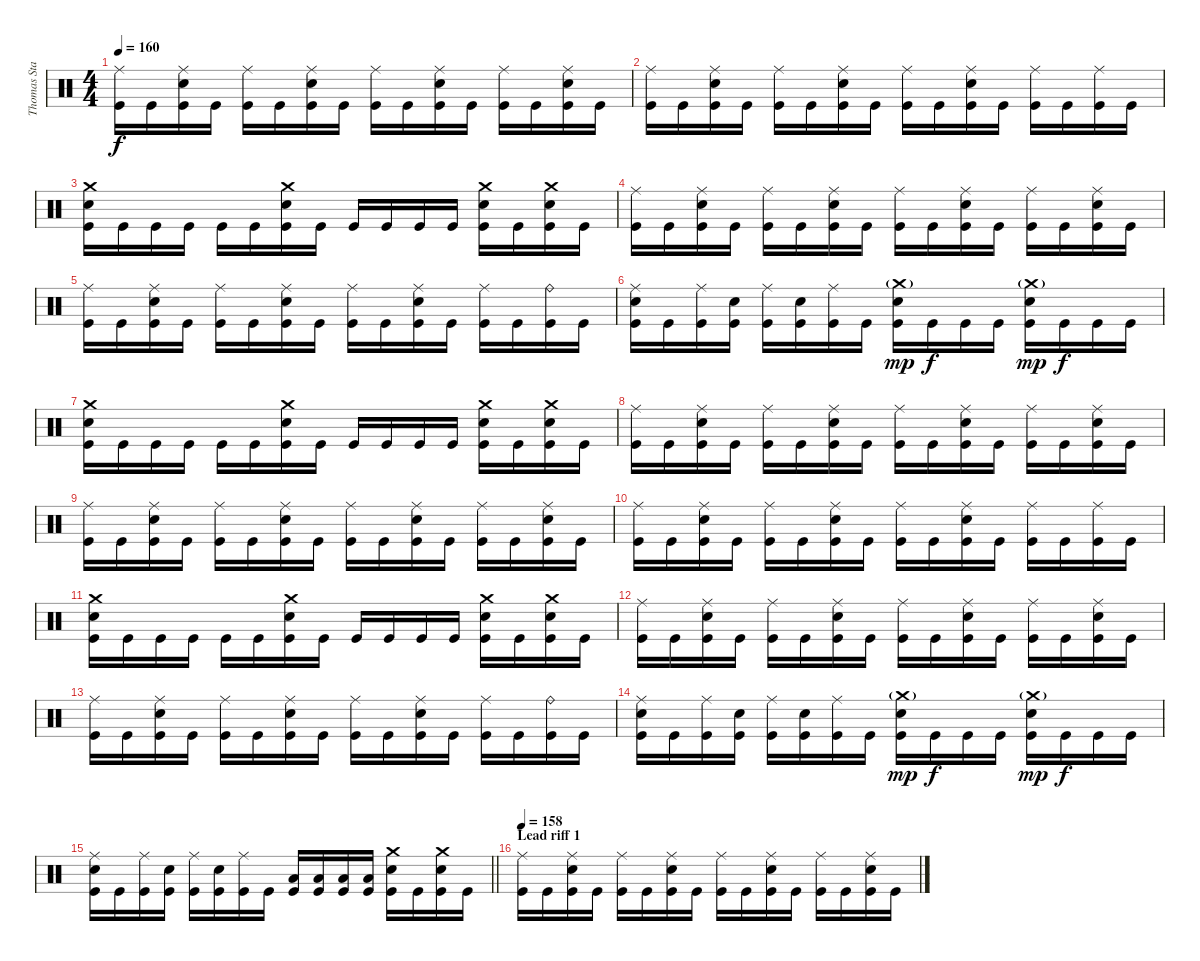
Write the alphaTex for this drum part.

\track ("Thomas Stauch" "Thomas Sta") {instrument percussion}
\staff {score}
\articulation defaults
\ts (4 4)
\tempo 160
\clef neutral
\ks c
("Ride (middle)" "Kick (hit)").16{dy f} "Kick (hit)".16 ("Ride (middle)" "Electric Snare (hit)" "Kick (hit)").16 "Kick (hit)".16 ("Ride (middle)" "Kick (hit)").16 "Kick (hit)".16 ("Ride (middle)" "Electric Snare (hit)" "Kick (hit)").16 "Kick (hit)".16 ("Ride (middle)" "Kick (hit)").16 "Kick (hit)".16 ("Ride (middle)" "Electric Snare (hit)" "Kick (hit)").16 "Kick (hit)".16 ("Ride (middle)" "Kick (hit)").16 "Kick (hit)".16 ("Ride (middle)" "Electric Snare (hit)" "Kick (hit)").16 "Kick (hit)".16 |
("Ride (middle)" "Kick (hit)").16 "Kick (hit)".16 ("Ride (middle)" "Electric Snare (hit)" "Kick (hit)").16 "Kick (hit)".16 ("Ride (middle)" "Kick (hit)").16 "Kick (hit)".16 ("Ride (middle)" "Electric Snare (hit)" "Kick (hit)").16 "Kick (hit)".16 ("Ride (middle)" "Kick (hit)").16 "Kick (hit)".16 ("Ride (middle)" "Electric Snare (hit)" "Kick (hit)").16 "Kick (hit)".16 ("Ride (middle)" "Kick (hit)").16 "Kick (hit)".16 ("Ride (middle)" "Kick (hit)").16 "Kick (hit)".16 |
("Crash medium (hit)" "Electric Snare (hit)" "Kick (hit)").16 "Kick (hit)".16 "Kick (hit)".16 "Kick (hit)".16 "Kick (hit)".16 "Kick (hit)".16 ("Crash medium (hit)" "Electric Snare (hit)" "Kick (hit)").16 "Kick (hit)".16 "Kick (hit)".16 "Kick (hit)".16 "Kick (hit)".16 "Kick (hit)".16 ("Crash medium (hit)" "Electric Snare (hit)" "Kick (hit)").16 "Kick (hit)".16 ("Crash medium (hit)" "Electric Snare (hit)" "Kick (hit)").16 "Kick (hit)".16 |
("Ride (middle)" "Kick (hit)").16 "Kick (hit)".16 ("Ride (middle)" "Electric Snare (hit)" "Kick (hit)").16 "Kick (hit)".16 ("Ride (middle)" "Kick (hit)").16 "Kick (hit)".16 ("Ride (middle)" "Electric Snare (hit)" "Kick (hit)").16 "Kick (hit)".16 ("Ride (middle)" "Kick (hit)").16 "Kick (hit)".16 ("Ride (middle)" "Electric Snare (hit)" "Kick (hit)").16 "Kick (hit)".16 ("Ride (middle)" "Kick (hit)").16 "Kick (hit)".16 ("Ride (middle)" "Electric Snare (hit)" "Kick (hit)").16 "Kick (hit)".16 |
("Ride (middle)" "Kick (hit)").16 "Kick (hit)".16 ("Ride (middle)" "Electric Snare (hit)" "Kick (hit)").16 "Kick (hit)".16 ("Ride (middle)" "Kick (hit)").16 "Kick (hit)".16 ("Ride (middle)" "Electric Snare (hit)" "Kick (hit)").16 "Kick (hit)".16 ("Ride (middle)" "Kick (hit)").16 "Kick (hit)".16 ("Ride (middle)" "Electric Snare (hit)" "Kick (hit)").16 "Kick (hit)".16 ("Ride (middle)" "Kick (hit)").16 "Kick (hit)".16 ("Ride (bell)" "Kick (hit)").16 "Kick (hit)".16 |
("Ride (middle)" "Electric Snare (hit)" "Kick (hit)").16 "Kick (hit)".16 ("Ride (middle)" "Kick (hit)").16 ("Electric Snare (hit)" "Kick (hit)").16 ("Ride (middle)" "Kick (hit)").16 ("Electric Snare (hit)" "Kick (hit)").16 ("Ride (middle)" "Kick (hit)").16 "Kick (hit)".16 ("Crash medium (hit)"{g} "Electric Snare (hit)" "Kick (hit)").16{dy mp} "Kick (hit)".16{dy f} "Kick (hit)".16 "Kick (hit)".16 ("Crash medium (hit)"{g} "Electric Snare (hit)" "Kick (hit)").16{dy mp} "Kick (hit)".16{dy f} "Kick (hit)".16 "Kick (hit)".16 |
("Crash medium (hit)" "Electric Snare (hit)" "Kick (hit)").16 "Kick (hit)".16 "Kick (hit)".16 "Kick (hit)".16 "Kick (hit)".16 "Kick (hit)".16 ("Crash medium (hit)" "Electric Snare (hit)" "Kick (hit)").16 "Kick (hit)".16 "Kick (hit)".16 "Kick (hit)".16 "Kick (hit)".16 "Kick (hit)".16 ("Crash medium (hit)" "Electric Snare (hit)" "Kick (hit)").16 "Kick (hit)".16 ("Crash medium (hit)" "Electric Snare (hit)" "Kick (hit)").16 "Kick (hit)".16 |
("Ride (middle)" "Kick (hit)").16 "Kick (hit)".16 ("Ride (middle)" "Electric Snare (hit)" "Kick (hit)").16 "Kick (hit)".16 ("Ride (middle)" "Kick (hit)").16 "Kick (hit)".16 ("Ride (middle)" "Electric Snare (hit)" "Kick (hit)").16 "Kick (hit)".16 ("Ride (middle)" "Kick (hit)").16 "Kick (hit)".16 ("Ride (middle)" "Electric Snare (hit)" "Kick (hit)").16 "Kick (hit)".16 ("Ride (middle)" "Kick (hit)").16 "Kick (hit)".16 ("Ride (middle)" "Electric Snare (hit)" "Kick (hit)").16 "Kick (hit)".16 |
("Ride (middle)" "Kick (hit)").16 "Kick (hit)".16 ("Ride (middle)" "Electric Snare (hit)" "Kick (hit)").16 "Kick (hit)".16 ("Ride (middle)" "Kick (hit)").16 "Kick (hit)".16 ("Ride (middle)" "Electric Snare (hit)" "Kick (hit)").16 "Kick (hit)".16 ("Ride (middle)" "Kick (hit)").16 "Kick (hit)".16 ("Ride (middle)" "Electric Snare (hit)" "Kick (hit)").16 "Kick (hit)".16 ("Ride (middle)" "Kick (hit)").16 "Kick (hit)".16 ("Ride (middle)" "Electric Snare (hit)" "Kick (hit)").16 "Kick (hit)".16 |
("Ride (middle)" "Kick (hit)").16 "Kick (hit)".16 ("Ride (middle)" "Electric Snare (hit)" "Kick (hit)").16 "Kick (hit)".16 ("Ride (middle)" "Kick (hit)").16 "Kick (hit)".16 ("Ride (middle)" "Electric Snare (hit)" "Kick (hit)").16 "Kick (hit)".16 ("Ride (middle)" "Kick (hit)").16 "Kick (hit)".16 ("Ride (middle)" "Electric Snare (hit)" "Kick (hit)").16 "Kick (hit)".16 ("Ride (middle)" "Kick (hit)").16 "Kick (hit)".16 ("Ride (middle)" "Kick (hit)").16 "Kick (hit)".16 |
("Crash medium (hit)" "Electric Snare (hit)" "Kick (hit)").16 "Kick (hit)".16 "Kick (hit)".16 "Kick (hit)".16 "Kick (hit)".16 "Kick (hit)".16 ("Crash medium (hit)" "Electric Snare (hit)" "Kick (hit)").16 "Kick (hit)".16 "Kick (hit)".16 "Kick (hit)".16 "Kick (hit)".16 "Kick (hit)".16 ("Crash medium (hit)" "Electric Snare (hit)" "Kick (hit)").16 "Kick (hit)".16 ("Crash medium (hit)" "Electric Snare (hit)" "Kick (hit)").16 "Kick (hit)".16 |
("Ride (middle)" "Kick (hit)").16 "Kick (hit)".16 ("Ride (middle)" "Electric Snare (hit)" "Kick (hit)").16 "Kick (hit)".16 ("Ride (middle)" "Kick (hit)").16 "Kick (hit)".16 ("Ride (middle)" "Electric Snare (hit)" "Kick (hit)").16 "Kick (hit)".16 ("Ride (middle)" "Kick (hit)").16 "Kick (hit)".16 ("Ride (middle)" "Electric Snare (hit)" "Kick (hit)").16 "Kick (hit)".16 ("Ride (middle)" "Kick (hit)").16 "Kick (hit)".16 ("Ride (middle)" "Electric Snare (hit)" "Kick (hit)").16 "Kick (hit)".16 |
("Ride (middle)" "Kick (hit)").16 "Kick (hit)".16 ("Ride (middle)" "Electric Snare (hit)" "Kick (hit)").16 "Kick (hit)".16 ("Ride (middle)" "Kick (hit)").16 "Kick (hit)".16 ("Ride (middle)" "Electric Snare (hit)" "Kick (hit)").16 "Kick (hit)".16 ("Ride (middle)" "Kick (hit)").16 "Kick (hit)".16 ("Ride (middle)" "Electric Snare (hit)" "Kick (hit)").16 "Kick (hit)".16 ("Ride (middle)" "Kick (hit)").16 "Kick (hit)".16 ("Ride (bell)" "Kick (hit)").16 "Kick (hit)".16 |
("Ride (middle)" "Electric Snare (hit)" "Kick (hit)").16 "Kick (hit)".16 ("Ride (middle)" "Kick (hit)").16 ("Electric Snare (hit)" "Kick (hit)").16 ("Ride (middle)" "Kick (hit)").16 ("Electric Snare (hit)" "Kick (hit)").16 ("Ride (middle)" "Kick (hit)").16 "Kick (hit)".16 ("Crash medium (hit)"{g} "Electric Snare (hit)" "Kick (hit)").16{dy mp} "Kick (hit)".16{dy f} "Kick (hit)".16 "Kick (hit)".16 ("Crash medium (hit)"{g} "Electric Snare (hit)" "Kick (hit)").16{dy mp} "Kick (hit)".16{dy f} "Kick (hit)".16 "Kick (hit)".16 |
\barLineRight lightlight
("Ride (middle)" "Electric Snare (hit)" "Kick (hit)").16 "Kick (hit)".16 ("Ride (middle)" "Kick (hit)").16 ("Electric Snare (hit)" "Kick (hit)").16 ("Ride (middle)" "Kick (hit)").16 ("Electric Snare (hit)" "Kick (hit)").16 ("Ride (middle)" "Kick (hit)").16 "Kick (hit)".16 ("Low Tom (hit)" "Kick (hit)").16 ("Low Tom (hit)" "Kick (hit)").16 ("Low Tom (hit)" "Kick (hit)").16 ("Low Tom (hit)" "Kick (hit)").16 ("Crash medium (hit)" "Electric Snare (hit)" "Kick (hit)").16 "Kick (hit)".16 ("Electric Snare (hit)" "Crash medium (hit)" "Kick (hit)").16 "Kick (hit)".16 |
\section ("" "Lead riff 1")
\tempo 158
("Ride (middle)" "Kick (hit)").16 "Kick (hit)".16 ("Ride (middle)" "Electric Snare (hit)" "Kick (hit)").16 "Kick (hit)".16 ("Ride (middle)" "Kick (hit)").16 "Kick (hit)".16 ("Ride (middle)" "Electric Snare (hit)" "Kick (hit)").16 "Kick (hit)".16 ("Ride (middle)" "Kick (hit)").16 "Kick (hit)".16 ("Ride (middle)" "Electric Snare (hit)" "Kick (hit)").16 "Kick (hit)".16 ("Ride (middle)" "Kick (hit)").16 "Kick (hit)".16 ("Ride (middle)" "Electric Snare (hit)" "Kick (hit)").16 "Kick (hit)".16
